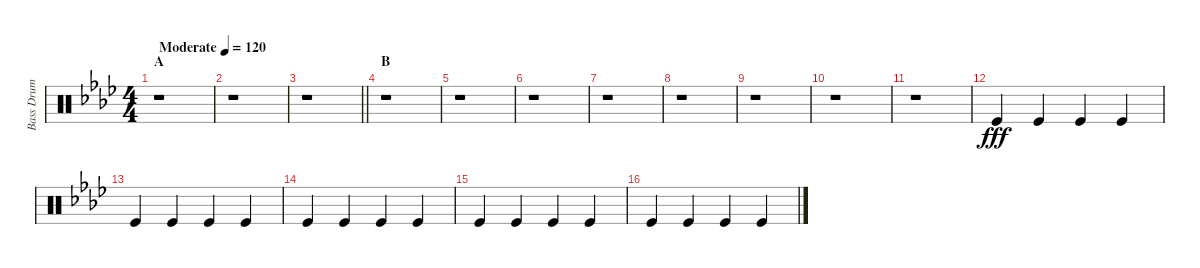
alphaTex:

\track ("Bass Drum" "Bass Drum") {instrument percussion}
\staff {score}
\articulation defaults
\ts (4 4)
\section ("" "A")
\tempo (120 "Moderate")
\clef neutral
\ks ab
r.1{dy fff} |
r.1 |
\barLineRight lightlight
r.1 |
\section ("" "B")
r.1 |
r.1 |
r.1 |
r.1 |
r.1 |
r.1 |
r.1 |
r.1 |
"Kick (hit)".4 "Kick (hit)".4 "Kick (hit)".4 "Kick (hit)".4 |
"Kick (hit)".4 "Kick (hit)".4 "Kick (hit)".4 "Kick (hit)".4 |
"Kick (hit)".4 "Kick (hit)".4 "Kick (hit)".4 "Kick (hit)".4 |
"Kick (hit)".4 "Kick (hit)".4 "Kick (hit)".4 "Kick (hit)".4 |
"Kick (hit)".4 "Kick (hit)".4 "Kick (hit)".4 "Kick (hit)".4
